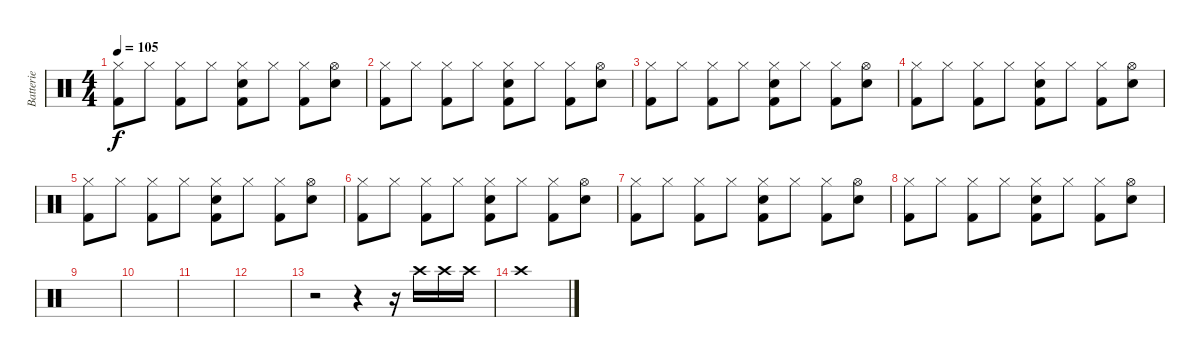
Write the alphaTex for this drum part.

\track ("Batterie" "Batterie") {instrument percussion}
\staff {score}
\articulation defaults
\ts (4 4)
\tempo 105
\clef neutral
\ks c
("Hi-Hat (closed)" "Kick (hit) 2").8{dy f} "Hi-Hat (closed)".8 ("Hi-Hat (closed)" "Kick (hit) 2").8 "Hi-Hat (closed)".8 ("Hi-Hat (closed)" "Snare (hit) 2" "Kick (hit) 2").8 "Hi-Hat (closed)".8 ("Hi-Hat (closed)" "Kick (hit) 2").8 ("Hi-Hat (open)" "Snare (hit) 2").8 |
("Hi-Hat (closed)" "Kick (hit) 2").8 "Hi-Hat (closed)".8 ("Hi-Hat (closed)" "Kick (hit) 2").8 "Hi-Hat (closed)".8 ("Hi-Hat (closed)" "Snare (hit) 2" "Kick (hit) 2").8 "Hi-Hat (closed)".8 ("Hi-Hat (closed)" "Kick (hit) 2").8 ("Hi-Hat (open)" "Snare (hit) 2").8 |
("Hi-Hat (closed)" "Kick (hit) 2").8 "Hi-Hat (closed)".8 ("Hi-Hat (closed)" "Kick (hit) 2").8 "Hi-Hat (closed)".8 ("Hi-Hat (closed)" "Snare (hit) 2" "Kick (hit) 2").8 "Hi-Hat (closed)".8 ("Hi-Hat (closed)" "Kick (hit) 2").8 ("Hi-Hat (open)" "Snare (hit) 2").8 |
("Hi-Hat (closed)" "Kick (hit) 2").8 "Hi-Hat (closed)".8 ("Hi-Hat (closed)" "Kick (hit) 2").8 "Hi-Hat (closed)".8 ("Hi-Hat (closed)" "Snare (hit) 2" "Kick (hit) 2").8 "Hi-Hat (closed)".8 ("Hi-Hat (closed)" "Kick (hit) 2").8 ("Hi-Hat (open)" "Snare (hit) 2").8 |
("Hi-Hat (closed)" "Kick (hit) 2").8 "Hi-Hat (closed)".8 ("Hi-Hat (closed)" "Kick (hit) 2").8 "Hi-Hat (closed)".8 ("Hi-Hat (closed)" "Snare (hit) 2" "Kick (hit) 2").8 "Hi-Hat (closed)".8 ("Hi-Hat (closed)" "Kick (hit) 2").8 ("Hi-Hat (open)" "Snare (hit) 2").8 |
("Hi-Hat (closed)" "Kick (hit) 2").8 "Hi-Hat (closed)".8 ("Hi-Hat (closed)" "Kick (hit) 2").8 "Hi-Hat (closed)".8 ("Hi-Hat (closed)" "Snare (hit) 2" "Kick (hit) 2").8 "Hi-Hat (closed)".8 ("Hi-Hat (closed)" "Kick (hit) 2").8 ("Hi-Hat (open)" "Snare (hit) 2").8 |
("Hi-Hat (closed)" "Kick (hit) 2").8 "Hi-Hat (closed)".8 ("Hi-Hat (closed)" "Kick (hit) 2").8 "Hi-Hat (closed)".8 ("Hi-Hat (closed)" "Snare (hit) 2" "Kick (hit) 2").8 "Hi-Hat (closed)".8 ("Hi-Hat (closed)" "Kick (hit) 2").8 ("Hi-Hat (open)" "Snare (hit) 2").8 |
("Hi-Hat (closed)" "Kick (hit) 2").8 "Hi-Hat (closed)".8 ("Hi-Hat (closed)" "Kick (hit) 2").8 "Hi-Hat (closed)".8 ("Hi-Hat (closed)" "Snare (hit) 2" "Kick (hit) 2").8 "Hi-Hat (closed)".8 ("Hi-Hat (closed)" "Kick (hit) 2").8 ("Hi-Hat (open)" "Snare (hit) 2").8 |
|
|
|
|
r.2 r.4 r.16 "Crash high (hit)".16{volume 13} "Crash high (hit)".16 "Crash high (hit)".16 |
"Crash high (hit)".1
